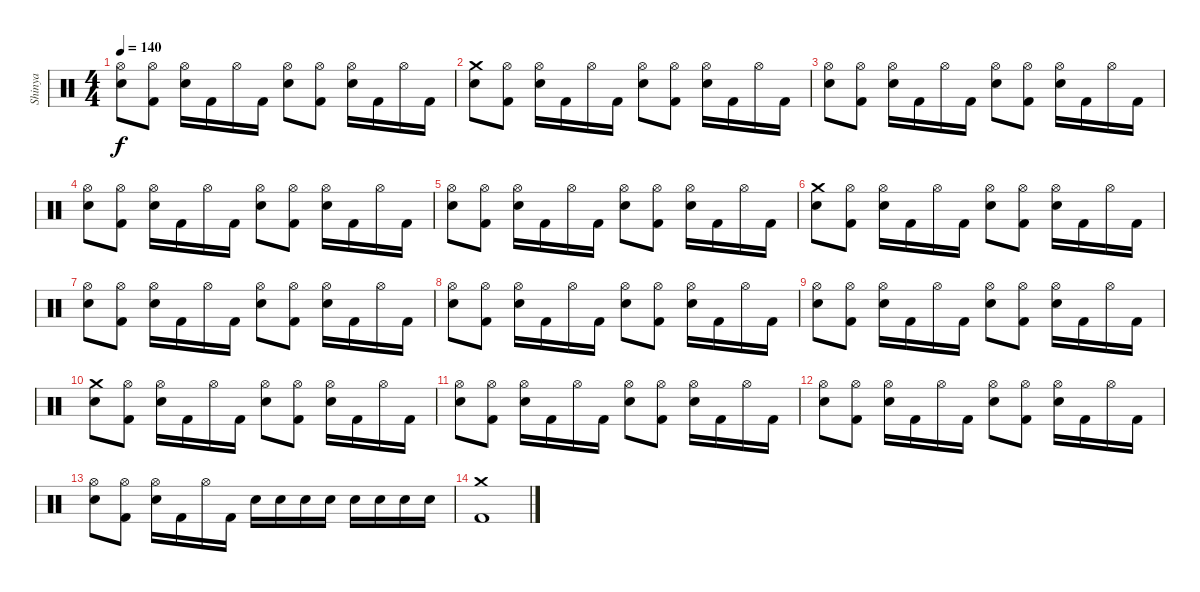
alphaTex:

\track ("Shinya" "Shinya") {instrument percussion}
\staff {score}
\articulation defaults
\ts (4 4)
\tempo 140
\clef neutral
\ks c
("Hi-Hat (open)" "Snare (hit) 2").8{dy f} ("Hi-Hat (open)" "Kick (hit) 2").8 ("Hi-Hat (open)" "Snare (hit) 2").16 "Kick (hit) 2".16 "Hi-Hat (open)".16 "Kick (hit) 2".16 ("Hi-Hat (open)" "Snare (hit) 2").8 ("Hi-Hat (open)" "Kick (hit) 2").8 ("Hi-Hat (open)" "Snare (hit) 2").16 "Kick (hit) 2".16 "Hi-Hat (open)".16 "Kick (hit) 2".16 |
("Crash medium (hit)" "Snare (hit) 2").8 ("Hi-Hat (open)" "Kick (hit) 2").8 ("Hi-Hat (open)" "Snare (hit) 2").16 "Kick (hit) 2".16 "Hi-Hat (open)".16 "Kick (hit) 2".16 ("Hi-Hat (open)" "Snare (hit) 2").8 ("Hi-Hat (open)" "Kick (hit) 2").8 ("Hi-Hat (open)" "Snare (hit) 2").16 "Kick (hit) 2".16 "Hi-Hat (open)".16 "Kick (hit) 2".16 |
("Hi-Hat (open)" "Snare (hit) 2").8 ("Hi-Hat (open)" "Kick (hit) 2").8 ("Hi-Hat (open)" "Snare (hit) 2").16 "Kick (hit) 2".16 "Hi-Hat (open)".16 "Kick (hit) 2".16 ("Hi-Hat (open)" "Snare (hit) 2").8 ("Hi-Hat (open)" "Kick (hit) 2").8 ("Hi-Hat (open)" "Snare (hit) 2").16 "Kick (hit) 2".16 "Hi-Hat (open)".16 "Kick (hit) 2".16 |
("Hi-Hat (open)" "Snare (hit) 2").8 ("Hi-Hat (open)" "Kick (hit) 2").8 ("Hi-Hat (open)" "Snare (hit) 2").16 "Kick (hit) 2".16 "Hi-Hat (open)".16 "Kick (hit) 2".16 ("Hi-Hat (open)" "Snare (hit) 2").8 ("Hi-Hat (open)" "Kick (hit) 2").8 ("Hi-Hat (open)" "Snare (hit) 2").16 "Kick (hit) 2".16 "Hi-Hat (open)".16 "Kick (hit) 2".16 |
("Hi-Hat (open)" "Snare (hit) 2").8 ("Hi-Hat (open)" "Kick (hit) 2").8 ("Hi-Hat (open)" "Snare (hit) 2").16 "Kick (hit) 2".16 "Hi-Hat (open)".16 "Kick (hit) 2".16 ("Hi-Hat (open)" "Snare (hit) 2").8 ("Hi-Hat (open)" "Kick (hit) 2").8 ("Hi-Hat (open)" "Snare (hit) 2").16 "Kick (hit) 2".16 "Hi-Hat (open)".16 "Kick (hit) 2".16 |
("Crash medium (hit)" "Snare (hit) 2").8 ("Hi-Hat (open)" "Kick (hit) 2").8 ("Hi-Hat (open)" "Snare (hit) 2").16 "Kick (hit) 2".16 "Hi-Hat (open)".16 "Kick (hit) 2".16 ("Hi-Hat (open)" "Snare (hit) 2").8 ("Hi-Hat (open)" "Kick (hit) 2").8 ("Hi-Hat (open)" "Snare (hit) 2").16 "Kick (hit) 2".16 "Hi-Hat (open)".16 "Kick (hit) 2".16 |
("Hi-Hat (open)" "Snare (hit) 2").8 ("Hi-Hat (open)" "Kick (hit) 2").8 ("Hi-Hat (open)" "Snare (hit) 2").16 "Kick (hit) 2".16 "Hi-Hat (open)".16 "Kick (hit) 2".16 ("Hi-Hat (open)" "Snare (hit) 2").8 ("Hi-Hat (open)" "Kick (hit) 2").8 ("Hi-Hat (open)" "Snare (hit) 2").16 "Kick (hit) 2".16 "Hi-Hat (open)".16 "Kick (hit) 2".16 |
("Hi-Hat (open)" "Snare (hit) 2").8{volume 10} ("Hi-Hat (open)" "Kick (hit) 2").8 ("Hi-Hat (open)" "Snare (hit) 2").16 "Kick (hit) 2".16 "Hi-Hat (open)".16 "Kick (hit) 2".16 ("Hi-Hat (open)" "Snare (hit) 2").8 ("Hi-Hat (open)" "Kick (hit) 2").8 ("Hi-Hat (open)" "Snare (hit) 2").16 "Kick (hit) 2".16 "Hi-Hat (open)".16 "Kick (hit) 2".16 |
("Hi-Hat (open)" "Snare (hit) 2").8 ("Hi-Hat (open)" "Kick (hit) 2").8 ("Hi-Hat (open)" "Snare (hit) 2").16 "Kick (hit) 2".16 "Hi-Hat (open)".16 "Kick (hit) 2".16 ("Hi-Hat (open)" "Snare (hit) 2").8 ("Hi-Hat (open)" "Kick (hit) 2").8 ("Hi-Hat (open)" "Snare (hit) 2").16 "Kick (hit) 2".16 "Hi-Hat (open)".16 "Kick (hit) 2".16 |
("Crash medium (hit)" "Snare (hit) 2").8{volume 7} ("Hi-Hat (open)" "Kick (hit) 2").8 ("Hi-Hat (open)" "Snare (hit) 2").16 "Kick (hit) 2".16 "Hi-Hat (open)".16 "Kick (hit) 2".16 ("Hi-Hat (open)" "Snare (hit) 2").8 ("Hi-Hat (open)" "Kick (hit) 2").8 ("Hi-Hat (open)" "Snare (hit) 2").16 "Kick (hit) 2".16 "Hi-Hat (open)".16 "Kick (hit) 2".16 |
("Hi-Hat (open)" "Snare (hit) 2").8 ("Hi-Hat (open)" "Kick (hit) 2").8 ("Hi-Hat (open)" "Snare (hit) 2").16 "Kick (hit) 2".16 "Hi-Hat (open)".16 "Kick (hit) 2".16 ("Hi-Hat (open)" "Snare (hit) 2").8 ("Hi-Hat (open)" "Kick (hit) 2").8 ("Hi-Hat (open)" "Snare (hit) 2").16 "Kick (hit) 2".16 "Hi-Hat (open)".16 "Kick (hit) 2".16 |
("Hi-Hat (open)" "Snare (hit) 2").8{volume 3} ("Hi-Hat (open)" "Kick (hit) 2").8 ("Hi-Hat (open)" "Snare (hit) 2").16 "Kick (hit) 2".16 "Hi-Hat (open)".16 "Kick (hit) 2".16 ("Hi-Hat (open)" "Snare (hit) 2").8 ("Hi-Hat (open)" "Kick (hit) 2").8 ("Hi-Hat (open)" "Snare (hit) 2").16 "Kick (hit) 2".16 "Hi-Hat (open)".16 "Kick (hit) 2".16 |
("Hi-Hat (open)" "Snare (hit) 2").8 ("Hi-Hat (open)" "Kick (hit) 2").8 ("Hi-Hat (open)" "Snare (hit) 2").16 "Kick (hit) 2".16 "Hi-Hat (open)".16 "Kick (hit) 2".16 "Snare (hit) 2".16 "Snare (hit) 2".16 "Snare (hit) 2".16 "Snare (hit) 2".16 "Snare (hit) 2".16 "Snare (hit) 2".16 "Snare (hit) 2".16 "Snare (hit) 2".16 |
("Crash medium (hit)" "Kick (hit) 2").1
